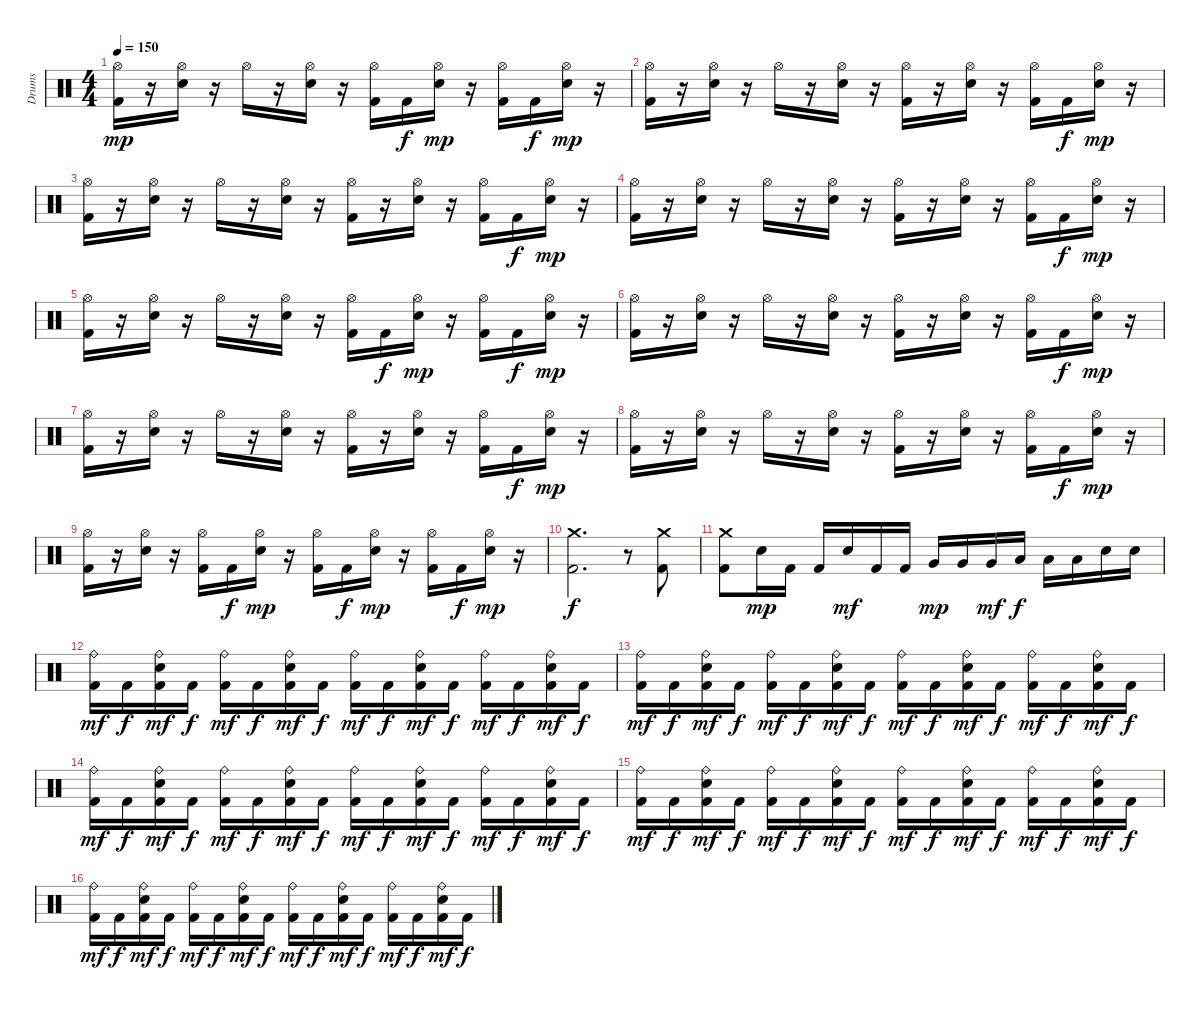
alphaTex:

\track ("Drums" "Drums") {instrument percussion}
\staff {score}
\articulation defaults
\ts (4 4)
\tempo 150
\clef neutral
\ks c
("Kick (hit) 2" "Hi-Hat (open)").16{dy mp} r.16 ("Electric Snare (hit)" "Hi-Hat (open)").16 r.16 "Hi-Hat (open)".16 r.16 ("Electric Snare (hit)" "Hi-Hat (open)").16 r.16 ("Kick (hit) 2" "Hi-Hat (open)").16 "Kick (hit) 2".16{dy f} ("Electric Snare (hit)" "Hi-Hat (open)").16{dy mp} r.16 ("Kick (hit) 2" "Hi-Hat (open)").16 "Kick (hit) 2".16{dy f} ("Electric Snare (hit)" "Hi-Hat (open)").16{dy mp} r.16 |
("Kick (hit) 2" "Hi-Hat (open)").16 r.16 ("Electric Snare (hit)" "Hi-Hat (open)").16 r.16 "Hi-Hat (open)".16 r.16 ("Electric Snare (hit)" "Hi-Hat (open)").16 r.16 ("Kick (hit) 2" "Hi-Hat (open)").16 r.16 ("Electric Snare (hit)" "Hi-Hat (open)").16 r.16 ("Kick (hit) 2" "Hi-Hat (open)").16 "Kick (hit) 2".16{dy f} ("Electric Snare (hit)" "Hi-Hat (open)").16{dy mp} r.16 |
("Kick (hit) 2" "Hi-Hat (open)").16 r.16 ("Electric Snare (hit)" "Hi-Hat (open)").16 r.16 "Hi-Hat (open)".16 r.16 ("Electric Snare (hit)" "Hi-Hat (open)").16 r.16 ("Kick (hit) 2" "Hi-Hat (open)").16 r.16 ("Electric Snare (hit)" "Hi-Hat (open)").16 r.16 ("Kick (hit) 2" "Hi-Hat (open)").16 "Kick (hit) 2".16{dy f} ("Electric Snare (hit)" "Hi-Hat (open)").16{dy mp} r.16 |
("Kick (hit) 2" "Hi-Hat (open)").16 r.16 ("Electric Snare (hit)" "Hi-Hat (open)").16 r.16 "Hi-Hat (open)".16 r.16 ("Electric Snare (hit)" "Hi-Hat (open)").16 r.16 ("Kick (hit) 2" "Hi-Hat (open)").16 r.16 ("Electric Snare (hit)" "Hi-Hat (open)").16 r.16 ("Kick (hit) 2" "Hi-Hat (open)").16 "Kick (hit) 2".16{dy f} ("Electric Snare (hit)" "Hi-Hat (open)").16{dy mp} r.16 |
("Kick (hit) 2" "Hi-Hat (open)").16 r.16 ("Electric Snare (hit)" "Hi-Hat (open)").16 r.16 "Hi-Hat (open)".16 r.16 ("Electric Snare (hit)" "Hi-Hat (open)").16 r.16 ("Kick (hit) 2" "Hi-Hat (open)").16 "Kick (hit) 2".16{dy f} ("Electric Snare (hit)" "Hi-Hat (open)").16{dy mp} r.16 ("Kick (hit) 2" "Hi-Hat (open)").16 "Kick (hit) 2".16{dy f} ("Electric Snare (hit)" "Hi-Hat (open)").16{dy mp} r.16 |
("Kick (hit) 2" "Hi-Hat (open)").16 r.16 ("Electric Snare (hit)" "Hi-Hat (open)").16 r.16 "Hi-Hat (open)".16 r.16 ("Electric Snare (hit)" "Hi-Hat (open)").16 r.16 ("Kick (hit) 2" "Hi-Hat (open)").16 r.16 ("Electric Snare (hit)" "Hi-Hat (open)").16 r.16 ("Kick (hit) 2" "Hi-Hat (open)").16 "Kick (hit) 2".16{dy f} ("Electric Snare (hit)" "Hi-Hat (open)").16{dy mp} r.16 |
("Kick (hit) 2" "Hi-Hat (open)").16 r.16 ("Electric Snare (hit)" "Hi-Hat (open)").16 r.16 "Hi-Hat (open)".16 r.16 ("Electric Snare (hit)" "Hi-Hat (open)").16 r.16 ("Kick (hit) 2" "Hi-Hat (open)").16 r.16 ("Electric Snare (hit)" "Hi-Hat (open)").16 r.16 ("Kick (hit) 2" "Hi-Hat (open)").16 "Kick (hit) 2".16{dy f} ("Electric Snare (hit)" "Hi-Hat (open)").16{dy mp} r.16 |
("Kick (hit) 2" "Hi-Hat (open)").16 r.16 ("Electric Snare (hit)" "Hi-Hat (open)").16 r.16 "Hi-Hat (open)".16 r.16 ("Electric Snare (hit)" "Hi-Hat (open)").16 r.16 ("Kick (hit) 2" "Hi-Hat (open)").16 r.16 ("Electric Snare (hit)" "Hi-Hat (open)").16 r.16 ("Kick (hit) 2" "Hi-Hat (open)").16 "Kick (hit) 2".16{dy f} ("Electric Snare (hit)" "Hi-Hat (open)").16{dy mp} r.16 |
("Kick (hit) 2" "Hi-Hat (open)").16 r.16 ("Electric Snare (hit)" "Hi-Hat (open)").16 r.16 ("Kick (hit) 2" "Hi-Hat (open)").16 "Kick (hit) 2".16{dy f} ("Electric Snare (hit)" "Hi-Hat (open)").16{dy mp} r.16 ("Kick (hit) 2" "Hi-Hat (open)").16 "Kick (hit) 2".16{dy f} ("Electric Snare (hit)" "Hi-Hat (open)").16{dy mp} r.16 ("Kick (hit) 2" "Hi-Hat (open)").16 "Kick (hit) 2".16{dy f} ("Electric Snare (hit)" "Hi-Hat (open)").16{dy mp} r.16 |
("Kick (hit) 2" "Crash medium (hit)").2{d dy f} r.8 ("Kick (hit) 2" "Crash medium (hit)").8 |
("Kick (hit) 2" "Crash medium (hit)").8 "Snare (hit) 2".16{dy mp} "Kick (hit) 2".16 "Kick (hit) 2".16 "Snare (hit) 2".16{dy mf} "Kick (hit) 2".16 "Kick (hit) 2".16 "Very Low Tom (hit)".16{dy mp} "Very Low Tom (hit)".16 "Very Low Tom (hit)".16{dy mf} "Low Floor Tom (hit)".16{dy f} "Low Floor Tom (hit)".16 "Low Floor Tom (hit)".16 "Snare (hit) 2".16 "Snare (hit) 2".16 |
("Kick (hit) 2" "Ride (bell)").16{dy mf} "Kick (hit) 2".16{dy f} ("Kick (hit) 2" "Snare (hit) 2" "Ride (bell)").16{dy mf} "Kick (hit) 2".16{dy f} ("Kick (hit) 2" "Ride (bell)").16{dy mf} "Kick (hit) 2".16{dy f} ("Kick (hit) 2" "Snare (hit) 2" "Ride (bell)").16{dy mf} "Kick (hit) 2".16{dy f} ("Kick (hit) 2" "Ride (bell)").16{dy mf} "Kick (hit) 2".16{dy f} ("Kick (hit) 2" "Snare (hit) 2" "Ride (bell)").16{dy mf} "Kick (hit) 2".16{dy f} ("Kick (hit) 2" "Ride (bell)").16{dy mf} "Kick (hit) 2".16{dy f} ("Kick (hit) 2" "Snare (hit) 2" "Ride (bell)").16{dy mf} "Kick (hit) 2".16{dy f} |
("Kick (hit) 2" "Ride (bell)").16{dy mf} "Kick (hit) 2".16{dy f} ("Kick (hit) 2" "Snare (hit) 2" "Ride (bell)").16{dy mf} "Kick (hit) 2".16{dy f} ("Kick (hit) 2" "Ride (bell)").16{dy mf} "Kick (hit) 2".16{dy f} ("Kick (hit) 2" "Snare (hit) 2" "Ride (bell)").16{dy mf} "Kick (hit) 2".16{dy f} ("Kick (hit) 2" "Ride (bell)").16{dy mf} "Kick (hit) 2".16{dy f} ("Kick (hit) 2" "Snare (hit) 2" "Ride (bell)").16{dy mf} "Kick (hit) 2".16{dy f} ("Kick (hit) 2" "Ride (bell)").16{dy mf} "Kick (hit) 2".16{dy f} ("Kick (hit) 2" "Snare (hit) 2" "Ride (bell)").16{dy mf} "Kick (hit) 2".16{dy f} |
("Kick (hit) 2" "Ride (bell)").16{dy mf} "Kick (hit) 2".16{dy f} ("Kick (hit) 2" "Snare (hit) 2" "Ride (bell)").16{dy mf} "Kick (hit) 2".16{dy f} ("Kick (hit) 2" "Ride (bell)").16{dy mf} "Kick (hit) 2".16{dy f} ("Kick (hit) 2" "Snare (hit) 2" "Ride (bell)").16{dy mf} "Kick (hit) 2".16{dy f} ("Kick (hit) 2" "Ride (bell)").16{dy mf} "Kick (hit) 2".16{dy f} ("Kick (hit) 2" "Snare (hit) 2" "Ride (bell)").16{dy mf} "Kick (hit) 2".16{dy f} ("Kick (hit) 2" "Ride (bell)").16{dy mf} "Kick (hit) 2".16{dy f} ("Kick (hit) 2" "Snare (hit) 2" "Ride (bell)").16{dy mf} "Kick (hit) 2".16{dy f} |
("Kick (hit) 2" "Ride (bell)").16{dy mf} "Kick (hit) 2".16{dy f} ("Kick (hit) 2" "Snare (hit) 2" "Ride (bell)").16{dy mf} "Kick (hit) 2".16{dy f} ("Kick (hit) 2" "Ride (bell)").16{dy mf} "Kick (hit) 2".16{dy f} ("Kick (hit) 2" "Snare (hit) 2" "Ride (bell)").16{dy mf} "Kick (hit) 2".16{dy f} ("Kick (hit) 2" "Ride (bell)").16{dy mf} "Kick (hit) 2".16{dy f} ("Kick (hit) 2" "Snare (hit) 2" "Ride (bell)").16{dy mf} "Kick (hit) 2".16{dy f} ("Kick (hit) 2" "Ride (bell)").16{dy mf} "Kick (hit) 2".16{dy f} ("Kick (hit) 2" "Snare (hit) 2" "Ride (bell)").16{dy mf} "Kick (hit) 2".16{dy f} |
("Kick (hit) 2" "Ride (bell)").16{dy mf} "Kick (hit) 2".16{dy f} ("Kick (hit) 2" "Snare (hit) 2" "Ride (bell)").16{dy mf} "Kick (hit) 2".16{dy f} ("Kick (hit) 2" "Ride (bell)").16{dy mf} "Kick (hit) 2".16{dy f} ("Kick (hit) 2" "Snare (hit) 2" "Ride (bell)").16{dy mf} "Kick (hit) 2".16{dy f} ("Kick (hit) 2" "Ride (bell)").16{dy mf} "Kick (hit) 2".16{dy f} ("Kick (hit) 2" "Snare (hit) 2" "Ride (bell)").16{dy mf} "Kick (hit) 2".16{dy f} ("Kick (hit) 2" "Ride (bell)").16{dy mf} "Kick (hit) 2".16{dy f} ("Kick (hit) 2" "Snare (hit) 2" "Ride (bell)").16{dy mf} "Kick (hit) 2".16{dy f}
